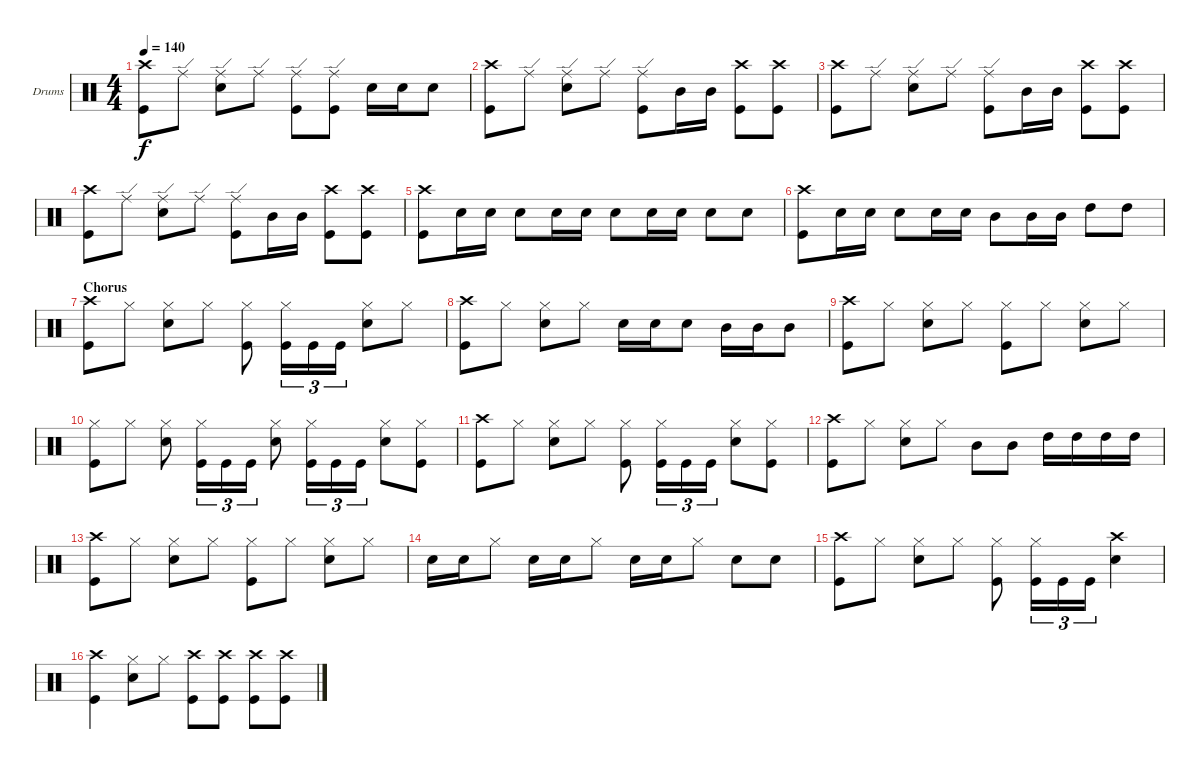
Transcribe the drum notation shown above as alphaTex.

\defaultSystemsLayout 4
\bracketExtendMode groupsimilarinstruments
\firstSystemTrackNameOrientation horizontal
\otherSystemsTrackNameOrientation horizontal
\track ("Drums" "Drums") {instrument percussion}
\staff {score}
\articulation defaults
\ts (4 4)
\tempo 140
\clef neutral
\ks c
("Crash high (hit)" "Kick (hit)").8{dy f} "Ride (edge)".8 ("Snare (hit) 2" "Ride (edge)").8 "Ride (edge)".8 ("Kick (hit)" "Ride (edge)").8 ("Ride (edge)" "Kick (hit)").8 "Snare (hit) 2".16 "Snare (hit) 2".16 "Snare (hit) 2".8 |
("Crash high (hit)" "Kick (hit)").8 "Ride (edge)".8 ("Snare (hit) 2" "Ride (edge)").8 "Ride (edge)".8 ("Ride (edge)" "Kick (hit)").8 "Mid Tom (hit)".16 "Mid Tom (hit)".16 ("Crash high (hit)" "Kick (hit)").8 ("Crash high (hit)" "Kick (hit)").8 |
("Crash high (hit)" "Kick (hit)").8 "Ride (edge)".8 ("Snare (hit) 2" "Ride (edge)").8 "Ride (edge)".8 ("Ride (edge)" "Kick (hit)").8 "Mid Tom (hit)".16 "Mid Tom (hit)".16 ("Crash high (hit)" "Kick (hit)").8 ("Crash high (hit)" "Kick (hit)").8 |
("Crash high (hit)" "Kick (hit)").8 "Ride (edge)".8 ("Snare (hit) 2" "Ride (edge)").8 "Ride (edge)".8 ("Ride (edge)" "Kick (hit)").8 "Mid Tom (hit)".16 "Mid Tom (hit)".16 ("Crash high (hit)" "Kick (hit)").8 ("Crash high (hit)" "Kick (hit)").8 |
("Kick (hit)" "Crash high (hit)").8 "Snare (hit) 2".16 "Snare (hit) 2".16 "Snare (hit) 2".8 "Snare (hit) 2".16 "Snare (hit) 2".16 "Snare (hit) 2".8 "Snare (hit) 2".16 "Snare (hit) 2".16 "Snare (hit) 2".8 "Snare (hit) 2".8 |
("Crash high (hit)" "Kick (hit)").8 "Snare (hit) 2".16 "Snare (hit) 2".16 "Snare (hit) 2".8 "Snare (hit) 2".16 "Snare (hit) 2".16 "Mid Tom (hit)".8 "Mid Tom (hit)".16 "Mid Tom (hit)".16 "High Tom (hit)".8 "High Tom (hit)".8 |
\section ("" "Chorus")
("Crash high (hit)" "Kick (hit)").8 "Hi-Hat (closed)".8 ("Snare (hit) 2" "Hi-Hat (closed)").8 "Hi-Hat (closed)".8 ("Kick (hit)" "Hi-Hat (closed)").8 ("Kick (hit)" "Hi-Hat (closed)").16{tu (3 2)} "Kick (hit)".16{tu (3 2)} "Kick (hit)".16{tu (3 2)} ("Snare (hit) 2" "Hi-Hat (closed)").8 "Hi-Hat (closed)".8 |
("Kick (hit)" "Crash high (hit)").8 "Hi-Hat (closed)".8 ("Snare (hit) 2" "Hi-Hat (closed)").8 "Hi-Hat (closed)".8 "Snare (hit) 2".16 "Snare (hit) 2".16 "Snare (hit) 2".8 "Mid Tom (hit)".16 "Mid Tom (hit)".16 "Mid Tom (hit)".8 |
("Crash high (hit)" "Kick (hit)").8 "Hi-Hat (closed)".8 ("Snare (hit) 2" "Hi-Hat (closed)").8 "Hi-Hat (closed)".8 ("Hi-Hat (closed)" "Kick (hit)").8 "Hi-Hat (closed)".8 ("Snare (hit) 2" "Hi-Hat (closed)").8 "Hi-Hat (closed)".8 |
("Kick (hit)" "Hi-Hat (closed)").8 "Hi-Hat (closed)".8 ("Snare (hit) 2" "Hi-Hat (closed)").8 ("Kick (hit)" "Hi-Hat (closed)").16{tu (3 2)} "Kick (hit)".16{tu (3 2)} "Kick (hit)".16{tu (3 2)} ("Snare (hit) 2" "Hi-Hat (closed)").8 ("Kick (hit)" "Hi-Hat (closed)").16{tu (3 2)} "Kick (hit)".16{tu (3 2)} "Kick (hit)".16{tu (3 2)} ("Snare (hit) 2" "Hi-Hat (closed)").8 ("Kick (hit)" "Hi-Hat (closed)").8 |
("Crash high (hit)" "Kick (hit)").8 "Hi-Hat (closed)".8 ("Snare (hit) 2" "Hi-Hat (closed)").8 "Hi-Hat (closed)".8 ("Hi-Hat (closed)" "Kick (hit)").8 ("Hi-Hat (closed)" "Kick (hit)").16{tu (3 2)} "Kick (hit)".16{tu (3 2)} "Kick (hit)".16{tu (3 2)} ("Snare (hit) 2" "Hi-Hat (closed)").8 ("Hi-Hat (closed)" "Kick (hit)").8 |
("Kick (hit)" "Crash high (hit)").8 "Hi-Hat (closed)".8 ("Snare (hit) 2" "Hi-Hat (closed)").8 "Hi-Hat (closed)".8 "Mid Tom (hit)".8 "Mid Tom (hit)".8 "High Tom (hit)".16 "High Tom (hit)".16 "High Tom (hit)".16 "High Tom (hit)".16 |
("Crash high (hit)" "Kick (hit)").8 "Hi-Hat (closed)".8 ("Snare (hit) 2" "Hi-Hat (closed)").8 "Hi-Hat (closed)".8 ("Hi-Hat (closed)" "Kick (hit)").8 "Hi-Hat (closed)".8 ("Snare (hit) 2" "Hi-Hat (closed)").8 "Hi-Hat (closed)".8 |
"Snare (hit) 2".16 "Snare (hit) 2".16 "Hi-Hat (closed)".8 "Snare (hit) 2".16 "Snare (hit) 2".16 "Hi-Hat (closed)".8 "Snare (hit) 2".16 "Snare (hit) 2".16 "Hi-Hat (closed)".8 "Snare (hit) 2".8 "Snare (hit) 2".8 |
("Crash high (hit)" "Kick (hit)").8 "Hi-Hat (closed)".8 ("Snare (hit) 2" "Hi-Hat (closed)").8 "Hi-Hat (closed)".8 ("Hi-Hat (closed)" "Kick (hit)").8 ("Hi-Hat (closed)" "Kick (hit)").16{tu (3 2)} "Kick (hit)".16{tu (3 2)} "Kick (hit)".16{tu (3 2)} ("Snare (hit) 2" "Crash high (hit)").4 |
("Kick (hit)" "Crash high (hit)").4 ("Snare (hit) 2" "Hi-Hat (closed)").8 "Hi-Hat (closed)".8 ("Kick (hit)" "Crash high (hit)").8 ("Kick (hit)" "Crash high (hit)").8 ("Kick (hit)" "Crash high (hit)").8 ("Kick (hit)" "Crash high (hit)").8
